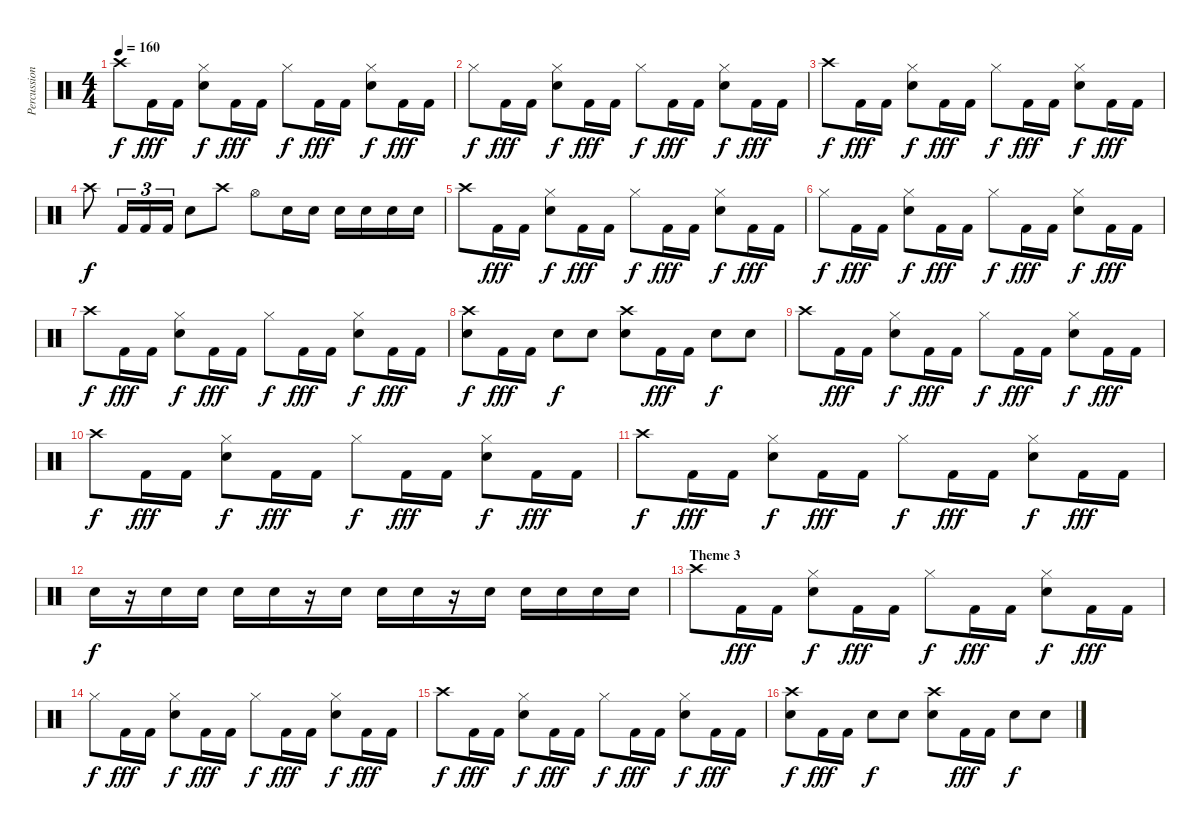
\track ("Percussion" "Percussion") {instrument percussion}
\staff {score}
\articulation defaults
\ts (4 4)
\tempo 160
\clef neutral
\ks c "Crash high (hit)".8{dy f} "Kick (hit) 2".16{dy fff} "Kick (hit) 2".16
("Hi-Hat (closed)" "Electric Snare (hit)").8{dy f} "Kick (hit) 2".16{dy fff} "Kick (hit) 2".16 "Hi-Hat (closed)".8{dy f} "Kick (hit) 2".16{dy fff} "Kick (hit) 2".16 ("Hi-Hat (closed)" "Electric Snare (hit)").8{dy f} "Kick (hit) 2".16{dy fff} "Kick (hit) 2".16 |
"Hi-Hat (closed)".8{dy f} "Kick (hit) 2".16{dy fff} "Kick (hit) 2".16 ("Hi-Hat (closed)" "Electric Snare (hit)").8{dy f} "Kick (hit) 2".16{dy fff} "Kick (hit) 2".16 "Hi-Hat (closed)".8{dy f} "Kick (hit) 2".16{dy fff} "Kick (hit) 2".16 ("Hi-Hat (closed)" "Electric Snare (hit)").8{dy f} "Kick (hit) 2".16{dy fff} "Kick (hit) 2".16 |
"Crash high (hit)".8{dy f} "Kick (hit) 2".16{dy fff} "Kick (hit) 2".16 ("Hi-Hat (closed)" "Electric Snare (hit)").8{dy f} "Kick (hit) 2".16{dy fff} "Kick (hit) 2".16 "Hi-Hat (closed)".8{dy f} "Kick (hit) 2".16{dy fff} "Kick (hit) 2".16 ("Hi-Hat (closed)" "Electric Snare (hit)").8{dy f} "Kick (hit) 2".16{dy fff} "Kick (hit) 2".16 |
"Crash high (hit)".8{dy f} "Kick (hit) 2".16{tu (3 2)} "Kick (hit) 2".16{tu (3 2)} "Kick (hit) 2".16{tu (3 2)} "Electric Snare (hit)".8 "Crash high (hit)".8 "Hi-Hat (open)".8 "Electric Snare (hit)".16 "Electric Snare (hit)".16 "Electric Snare (hit)".16 "Electric Snare (hit)".16 "Electric Snare (hit)".16 "Electric Snare (hit)".16 |
"Crash high (hit)".8 "Kick (hit) 2".16{dy fff} "Kick (hit) 2".16 ("Hi-Hat (closed)" "Electric Snare (hit)").8{dy f} "Kick (hit) 2".16{dy fff} "Kick (hit) 2".16 "Hi-Hat (closed)".8{dy f} "Kick (hit) 2".16{dy fff} "Kick (hit) 2".16 ("Hi-Hat (closed)" "Electric Snare (hit)").8{dy f} "Kick (hit) 2".16{dy fff} "Kick (hit) 2".16 |
"Hi-Hat (closed)".8{dy f} "Kick (hit) 2".16{dy fff} "Kick (hit) 2".16 ("Hi-Hat (closed)" "Electric Snare (hit)").8{dy f} "Kick (hit) 2".16{dy fff} "Kick (hit) 2".16 "Hi-Hat (closed)".8{dy f} "Kick (hit) 2".16{dy fff} "Kick (hit) 2".16 ("Hi-Hat (closed)" "Electric Snare (hit)").8{dy f} "Kick (hit) 2".16{dy fff} "Kick (hit) 2".16 |
"Crash high (hit)".8{dy f} "Kick (hit) 2".16{dy fff} "Kick (hit) 2".16 ("Hi-Hat (closed)" "Electric Snare (hit)").8{dy f} "Kick (hit) 2".16{dy fff} "Kick (hit) 2".16 "Hi-Hat (closed)".8{dy f} "Kick (hit) 2".16{dy fff} "Kick (hit) 2".16 ("Hi-Hat (closed)" "Electric Snare (hit)").8{dy f} "Kick (hit) 2".16{dy fff} "Kick (hit) 2".16 |
("Crash high (hit)" "Electric Snare (hit)").8{dy f} "Kick (hit) 2".16{dy fff} "Kick (hit) 2".16 "Electric Snare (hit)".8{dy f} "Electric Snare (hit)".8 ("Crash high (hit)" "Electric Snare (hit)").8 "Kick (hit) 2".16{dy fff} "Kick (hit) 2".16 "Electric Snare (hit)".8{dy f} "Electric Snare (hit)".8 |
"Crash high (hit)".8 "Kick (hit) 2".16{dy fff} "Kick (hit) 2".16 ("Hi-Hat (closed)" "Electric Snare (hit)").8{dy f} "Kick (hit) 2".16{dy fff} "Kick (hit) 2".16 "Hi-Hat (closed)".8{dy f} "Kick (hit) 2".16{dy fff} "Kick (hit) 2".16 ("Hi-Hat (closed)" "Electric Snare (hit)").8{dy f} "Kick (hit) 2".16{dy fff} "Kick (hit) 2".16 |
"Crash high (hit)".8{dy f} "Kick (hit) 2".16{dy fff} "Kick (hit) 2".16 ("Hi-Hat (closed)" "Electric Snare (hit)").8{dy f} "Kick (hit) 2".16{dy fff} "Kick (hit) 2".16 "Hi-Hat (closed)".8{dy f} "Kick (hit) 2".16{dy fff} "Kick (hit) 2".16 ("Hi-Hat (closed)" "Electric Snare (hit)").8{dy f} "Kick (hit) 2".16{dy fff} "Kick (hit) 2".16 |
"Crash high (hit)".8{dy f} "Kick (hit) 2".16{dy fff} "Kick (hit) 2".16 ("Hi-Hat (closed)" "Electric Snare (hit)").8{dy f} "Kick (hit) 2".16{dy fff} "Kick (hit) 2".16 "Hi-Hat (closed)".8{dy f} "Kick (hit) 2".16{dy fff} "Kick (hit) 2".16 ("Hi-Hat (closed)" "Electric Snare (hit)").8{dy f} "Kick (hit) 2".16{dy fff} "Kick (hit) 2".16 |
"Electric Snare (hit)".16{dy f} r.16 "Electric Snare (hit)".16 "Electric Snare (hit)".16 "Electric Snare (hit)".16 "Electric Snare (hit)".16 r.16 "Electric Snare (hit)".16 "Electric Snare (hit)".16 "Electric Snare (hit)".16 r.16 "Electric Snare (hit)".16 "Electric Snare (hit)".16 "Electric Snare (hit)".16 "Electric Snare (hit)".16 "Electric Snare (hit)".16 |
\section ("" "Theme 3")
"Crash high (hit)".8 "Kick (hit) 2".16{dy fff} "Kick (hit) 2".16 ("Hi-Hat (closed)" "Electric Snare (hit)").8{dy f} "Kick (hit) 2".16{dy fff} "Kick (hit) 2".16 "Hi-Hat (closed)".8{dy f} "Kick (hit) 2".16{dy fff} "Kick (hit) 2".16 ("Hi-Hat (closed)" "Electric Snare (hit)").8{dy f} "Kick (hit) 2".16{dy fff} "Kick (hit) 2".16 |
"Hi-Hat (closed)".8{dy f} "Kick (hit) 2".16{dy fff} "Kick (hit) 2".16 ("Hi-Hat (closed)" "Electric Snare (hit)").8{dy f} "Kick (hit) 2".16{dy fff} "Kick (hit) 2".16 "Hi-Hat (closed)".8{dy f} "Kick (hit) 2".16{dy fff} "Kick (hit) 2".16 ("Hi-Hat (closed)" "Electric Snare (hit)").8{dy f} "Kick (hit) 2".16{dy fff} "Kick (hit) 2".16 |
"Crash high (hit)".8{dy f} "Kick (hit) 2".16{dy fff} "Kick (hit) 2".16 ("Hi-Hat (closed)" "Electric Snare (hit)").8{dy f} "Kick (hit) 2".16{dy fff} "Kick (hit) 2".16 "Hi-Hat (closed)".8{dy f} "Kick (hit) 2".16{dy fff} "Kick (hit) 2".16 ("Hi-Hat (closed)" "Electric Snare (hit)").8{dy f} "Kick (hit) 2".16{dy fff} "Kick (hit) 2".16 |
("Crash high (hit)" "Electric Snare (hit)").8{dy f} "Kick (hit) 2".16{dy fff} "Kick (hit) 2".16 "Electric Snare (hit)".8{dy f} "Electric Snare (hit)".8 ("Crash high (hit)" "Electric Snare (hit)").8 "Kick (hit) 2".16{dy fff} "Kick (hit) 2".16 "Electric Snare (hit)".8{dy f} "Electric Snare (hit)".8
